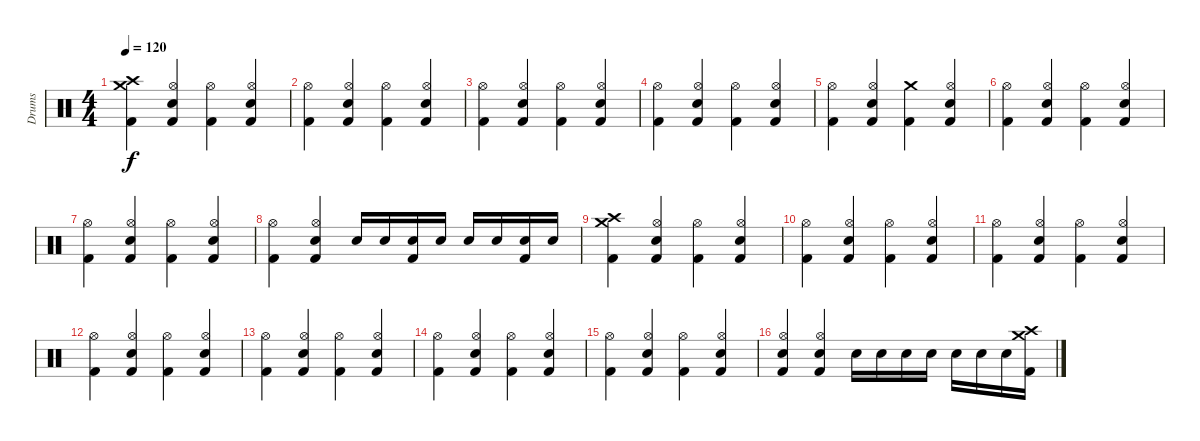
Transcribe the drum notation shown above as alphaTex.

\track ("Drums" "Drums") {instrument percussion}
\staff {score}
\articulation defaults
\ts (4 4)
\tempo 120
\clef neutral
\ks c
("Crash medium (hit)" "Crash high (hit)" "Kick (hit) 2").4{dy f} ("Hi-Hat (open)" "Electric Snare (hit)" "Kick (hit) 2").4 ("Hi-Hat (open)" "Kick (hit) 2").4 ("Hi-Hat (open)" "Electric Snare (hit)" "Kick (hit) 2").4 |
("Hi-Hat (open)" "Kick (hit) 2").4 ("Hi-Hat (open)" "Electric Snare (hit)" "Kick (hit) 2").4 ("Hi-Hat (open)" "Kick (hit) 2").4 ("Hi-Hat (open)" "Electric Snare (hit)" "Kick (hit) 2").4 |
("Hi-Hat (open)" "Kick (hit) 2").4 ("Hi-Hat (open)" "Electric Snare (hit)" "Kick (hit) 2").4 ("Hi-Hat (open)" "Kick (hit) 2").4 ("Hi-Hat (open)" "Electric Snare (hit)" "Kick (hit) 2").4 |
("Hi-Hat (open)" "Kick (hit) 2").4 ("Hi-Hat (open)" "Electric Snare (hit)" "Kick (hit) 2").4 ("Hi-Hat (open)" "Kick (hit) 2").4 ("Hi-Hat (open)" "Electric Snare (hit)" "Kick (hit) 2").4 |
("Hi-Hat (open)" "Kick (hit) 2").4 ("Hi-Hat (open)" "Electric Snare (hit)" "Kick (hit) 2").4 ("Crash medium (hit)" "Kick (hit) 2").4 ("Hi-Hat (open)" "Electric Snare (hit)" "Kick (hit) 2").4 |
("Hi-Hat (open)" "Kick (hit) 2").4 ("Hi-Hat (open)" "Electric Snare (hit)" "Kick (hit) 2").4 ("Hi-Hat (open)" "Kick (hit) 2").4 ("Hi-Hat (open)" "Electric Snare (hit)" "Kick (hit) 2").4 |
("Hi-Hat (open)" "Kick (hit) 2").4 ("Hi-Hat (open)" "Electric Snare (hit)" "Kick (hit) 2").4 ("Hi-Hat (open)" "Kick (hit) 2").4 ("Hi-Hat (open)" "Electric Snare (hit)" "Kick (hit) 2").4 |
("Hi-Hat (open)" "Kick (hit) 2").4 ("Hi-Hat (open)" "Electric Snare (hit)" "Kick (hit) 2").4 "Electric Snare (hit)".16 "Electric Snare (hit)".16 ("Kick (hit) 2" "Electric Snare (hit)").16 "Electric Snare (hit)".16 "Electric Snare (hit)".16 "Electric Snare (hit)".16 ("Kick (hit) 2" "Electric Snare (hit)").16 "Electric Snare (hit)".16 |
("Crash medium (hit)" "Crash high (hit)" "Kick (hit) 2").4 ("Hi-Hat (open)" "Electric Snare (hit)" "Kick (hit) 2").4 ("Hi-Hat (open)" "Kick (hit) 2").4 ("Hi-Hat (open)" "Electric Snare (hit)" "Kick (hit) 2").4 |
("Hi-Hat (open)" "Kick (hit) 2").4 ("Hi-Hat (open)" "Electric Snare (hit)" "Kick (hit) 2").4 ("Hi-Hat (open)" "Kick (hit) 2").4 ("Hi-Hat (open)" "Electric Snare (hit)" "Kick (hit) 2").4 |
("Hi-Hat (open)" "Kick (hit) 2").4 ("Hi-Hat (open)" "Electric Snare (hit)" "Kick (hit) 2").4 ("Hi-Hat (open)" "Kick (hit) 2").4 ("Hi-Hat (open)" "Electric Snare (hit)" "Kick (hit) 2").4 |
("Hi-Hat (open)" "Kick (hit) 2").4 ("Hi-Hat (open)" "Electric Snare (hit)" "Kick (hit) 2").4 ("Hi-Hat (open)" "Kick (hit) 2").4 ("Hi-Hat (open)" "Electric Snare (hit)" "Kick (hit) 2").4 |
("Hi-Hat (open)" "Kick (hit) 2").4 ("Hi-Hat (open)" "Electric Snare (hit)" "Kick (hit) 2").4 ("Hi-Hat (open)" "Kick (hit) 2").4 ("Hi-Hat (open)" "Electric Snare (hit)" "Kick (hit) 2").4 |
("Hi-Hat (open)" "Kick (hit) 2").4 ("Hi-Hat (open)" "Electric Snare (hit)" "Kick (hit) 2").4 ("Hi-Hat (open)" "Kick (hit) 2").4 ("Hi-Hat (open)" "Electric Snare (hit)" "Kick (hit) 2").4 |
("Hi-Hat (open)" "Kick (hit) 2").4 ("Hi-Hat (open)" "Electric Snare (hit)" "Kick (hit) 2").4 ("Hi-Hat (open)" "Kick (hit) 2").4 ("Hi-Hat (open)" "Electric Snare (hit)" "Kick (hit) 2").4 |
("Hi-Hat (open)" "Electric Snare (hit)" "Kick (hit) 2").4 ("Hi-Hat (open)" "Electric Snare (hit)" "Kick (hit) 2").4 "Electric Snare (hit)".16 "Electric Snare (hit)".16 "Electric Snare (hit)".16 "Electric Snare (hit)".16 "Electric Snare (hit)".16 "Electric Snare (hit)".16 "Electric Snare (hit)".16 ("Crash medium (hit)" "Crash high (hit)" "Kick (hit) 2").16
